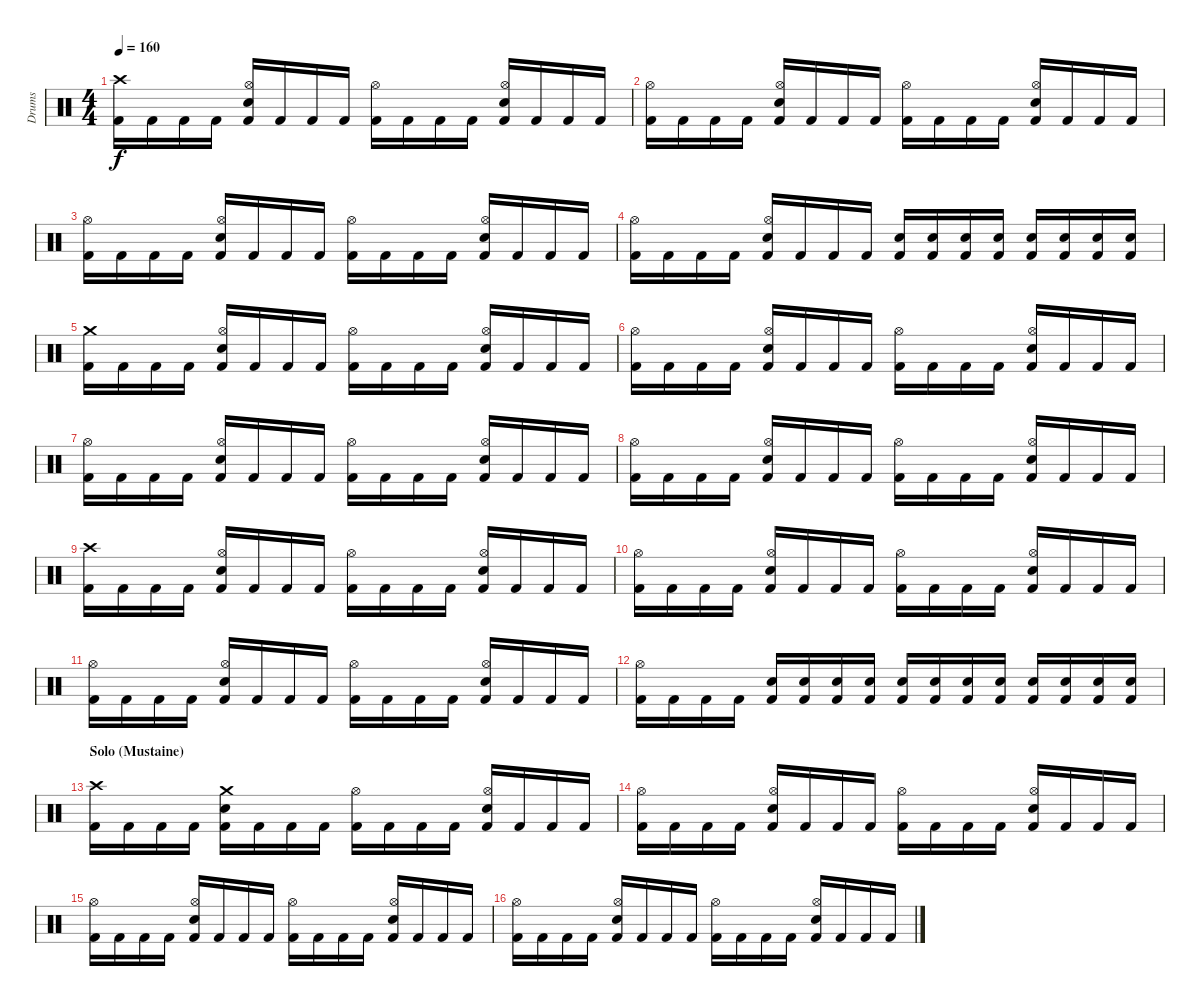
\track ("Drums" "Drums") {instrument percussion}
\staff {score}
\articulation defaults
\ts (4 4)
\tempo 160
\clef neutral
\ks c
("Crash high (hit)" "Kick (hit) 2").16{dy f} "Kick (hit) 2".16 "Kick (hit) 2".16 "Kick (hit) 2".16 ("Hi-Hat (open)" "Snare (hit) 2" "Kick (hit) 2").16 "Kick (hit) 2".16 "Kick (hit) 2".16 "Kick (hit) 2".16 ("Hi-Hat (open)" "Kick (hit) 2").16 "Kick (hit) 2".16 "Kick (hit) 2".16 "Kick (hit) 2".16 ("Hi-Hat (open)" "Snare (hit) 2" "Kick (hit) 2").16 "Kick (hit) 2".16 "Kick (hit) 2".16 "Kick (hit) 2".16 |
("Hi-Hat (open)" "Kick (hit) 2").16 "Kick (hit) 2".16 "Kick (hit) 2".16 "Kick (hit) 2".16 ("Hi-Hat (open)" "Snare (hit) 2" "Kick (hit) 2").16 "Kick (hit) 2".16 "Kick (hit) 2".16 "Kick (hit) 2".16 ("Hi-Hat (open)" "Kick (hit) 2").16 "Kick (hit) 2".16 "Kick (hit) 2".16 "Kick (hit) 2".16 ("Hi-Hat (open)" "Snare (hit) 2" "Kick (hit) 2").16 "Kick (hit) 2".16 "Kick (hit) 2".16 "Kick (hit) 2".16 |
("Hi-Hat (open)" "Kick (hit) 2").16 "Kick (hit) 2".16 "Kick (hit) 2".16 "Kick (hit) 2".16 ("Hi-Hat (open)" "Snare (hit) 2" "Kick (hit) 2").16 "Kick (hit) 2".16 "Kick (hit) 2".16 "Kick (hit) 2".16 ("Hi-Hat (open)" "Kick (hit) 2").16 "Kick (hit) 2".16 "Kick (hit) 2".16 "Kick (hit) 2".16 ("Hi-Hat (open)" "Snare (hit) 2" "Kick (hit) 2").16 "Kick (hit) 2".16 "Kick (hit) 2".16 "Kick (hit) 2".16 |
("Hi-Hat (open)" "Kick (hit) 2").16 "Kick (hit) 2".16 "Kick (hit) 2".16 "Kick (hit) 2".16 ("Hi-Hat (open)" "Snare (hit) 2" "Kick (hit) 2").16 "Kick (hit) 2".16 "Kick (hit) 2".16 "Kick (hit) 2".16 ("Snare (hit) 2" "Kick (hit) 2").16 ("Snare (hit) 2" "Kick (hit) 2").16 ("Snare (hit) 2" "Kick (hit) 2").16 ("Snare (hit) 2" "Kick (hit) 2").16 ("Snare (hit) 2" "Kick (hit) 2").16 ("Snare (hit) 2" "Kick (hit) 2").16 ("Snare (hit) 2" "Kick (hit) 2").16 ("Snare (hit) 2" "Kick (hit) 2").16 |
("Crash medium (hit)" "Kick (hit) 2").16 "Kick (hit) 2".16 "Kick (hit) 2".16 "Kick (hit) 2".16 ("Hi-Hat (open)" "Snare (hit) 2" "Kick (hit) 2").16 "Kick (hit) 2".16 "Kick (hit) 2".16 "Kick (hit) 2".16 ("Hi-Hat (open)" "Kick (hit) 2").16 "Kick (hit) 2".16 "Kick (hit) 2".16 "Kick (hit) 2".16 ("Hi-Hat (open)" "Snare (hit) 2" "Kick (hit) 2").16 "Kick (hit) 2".16 "Kick (hit) 2".16 "Kick (hit) 2".16 |
("Hi-Hat (open)" "Kick (hit) 2").16 "Kick (hit) 2".16 "Kick (hit) 2".16 "Kick (hit) 2".16 ("Hi-Hat (open)" "Snare (hit) 2" "Kick (hit) 2").16 "Kick (hit) 2".16 "Kick (hit) 2".16 "Kick (hit) 2".16 ("Hi-Hat (open)" "Kick (hit) 2").16 "Kick (hit) 2".16 "Kick (hit) 2".16 "Kick (hit) 2".16 ("Hi-Hat (open)" "Snare (hit) 2" "Kick (hit) 2").16 "Kick (hit) 2".16 "Kick (hit) 2".16 "Kick (hit) 2".16 |
("Hi-Hat (open)" "Kick (hit) 2").16 "Kick (hit) 2".16 "Kick (hit) 2".16 "Kick (hit) 2".16 ("Hi-Hat (open)" "Snare (hit) 2" "Kick (hit) 2").16 "Kick (hit) 2".16 "Kick (hit) 2".16 "Kick (hit) 2".16 ("Hi-Hat (open)" "Kick (hit) 2").16 "Kick (hit) 2".16 "Kick (hit) 2".16 "Kick (hit) 2".16 ("Hi-Hat (open)" "Snare (hit) 2" "Kick (hit) 2").16 "Kick (hit) 2".16 "Kick (hit) 2".16 "Kick (hit) 2".16 |
("Hi-Hat (open)" "Kick (hit) 2").16 "Kick (hit) 2".16 "Kick (hit) 2".16 "Kick (hit) 2".16 ("Hi-Hat (open)" "Snare (hit) 2" "Kick (hit) 2").16 "Kick (hit) 2".16 "Kick (hit) 2".16 "Kick (hit) 2".16 ("Hi-Hat (open)" "Kick (hit) 2").16 "Kick (hit) 2".16 "Kick (hit) 2".16 "Kick (hit) 2".16 ("Hi-Hat (open)" "Snare (hit) 2" "Kick (hit) 2").16 "Kick (hit) 2".16 "Kick (hit) 2".16 "Kick (hit) 2".16 |
("Crash high (hit)" "Kick (hit) 2").16 "Kick (hit) 2".16 "Kick (hit) 2".16 "Kick (hit) 2".16 ("Hi-Hat (open)" "Snare (hit) 2" "Kick (hit) 2").16 "Kick (hit) 2".16 "Kick (hit) 2".16 "Kick (hit) 2".16 ("Hi-Hat (open)" "Kick (hit) 2").16 "Kick (hit) 2".16 "Kick (hit) 2".16 "Kick (hit) 2".16 ("Hi-Hat (open)" "Snare (hit) 2" "Kick (hit) 2").16 "Kick (hit) 2".16 "Kick (hit) 2".16 "Kick (hit) 2".16 |
("Hi-Hat (open)" "Kick (hit) 2").16 "Kick (hit) 2".16 "Kick (hit) 2".16 "Kick (hit) 2".16 ("Hi-Hat (open)" "Snare (hit) 2" "Kick (hit) 2").16 "Kick (hit) 2".16 "Kick (hit) 2".16 "Kick (hit) 2".16 ("Hi-Hat (open)" "Kick (hit) 2").16 "Kick (hit) 2".16 "Kick (hit) 2".16 "Kick (hit) 2".16 ("Hi-Hat (open)" "Snare (hit) 2" "Kick (hit) 2").16 "Kick (hit) 2".16 "Kick (hit) 2".16 "Kick (hit) 2".16 |
("Hi-Hat (open)" "Kick (hit) 2").16 "Kick (hit) 2".16 "Kick (hit) 2".16 "Kick (hit) 2".16 ("Hi-Hat (open)" "Snare (hit) 2" "Kick (hit) 2").16 "Kick (hit) 2".16 "Kick (hit) 2".16 "Kick (hit) 2".16 ("Hi-Hat (open)" "Kick (hit) 2").16 "Kick (hit) 2".16 "Kick (hit) 2".16 "Kick (hit) 2".16 ("Hi-Hat (open)" "Snare (hit) 2" "Kick (hit) 2").16 "Kick (hit) 2".16 "Kick (hit) 2".16 "Kick (hit) 2".16 |
("Hi-Hat (open)" "Kick (hit) 2").16 "Kick (hit) 2".16 "Kick (hit) 2".16 "Kick (hit) 2".16 ("Snare (hit) 2" "Kick (hit) 2").16 ("Snare (hit) 2" "Kick (hit) 2").16 ("Snare (hit) 2" "Kick (hit) 2").16 ("Snare (hit) 2" "Kick (hit) 2").16 ("Snare (hit) 2" "Kick (hit) 2").16 ("Snare (hit) 2" "Kick (hit) 2").16 ("Snare (hit) 2" "Kick (hit) 2").16 ("Snare (hit) 2" "Kick (hit) 2").16 ("Snare (hit) 2" "Kick (hit) 2").16 ("Snare (hit) 2" "Kick (hit) 2").16 ("Snare (hit) 2" "Kick (hit) 2").16 ("Snare (hit) 2" "Kick (hit) 2").16 |
\section ("" "Solo (Mustaine)")
("Crash high (hit)" "Kick (hit) 2").16 "Kick (hit) 2".16 "Kick (hit) 2".16 "Kick (hit) 2".16 ("Crash medium (hit)" "Snare (hit) 2" "Kick (hit) 2").16 "Kick (hit) 2".16 "Kick (hit) 2".16 "Kick (hit) 2".16 ("Hi-Hat (open)" "Kick (hit) 2").16 "Kick (hit) 2".16 "Kick (hit) 2".16 "Kick (hit) 2".16 ("Hi-Hat (open)" "Snare (hit) 2" "Kick (hit) 2").16 "Kick (hit) 2".16 "Kick (hit) 2".16 "Kick (hit) 2".16 |
("Hi-Hat (open)" "Kick (hit) 2").16 "Kick (hit) 2".16 "Kick (hit) 2".16 "Kick (hit) 2".16 ("Hi-Hat (open)" "Snare (hit) 2" "Kick (hit) 2").16 "Kick (hit) 2".16 "Kick (hit) 2".16 "Kick (hit) 2".16 ("Hi-Hat (open)" "Kick (hit) 2").16 "Kick (hit) 2".16 "Kick (hit) 2".16 "Kick (hit) 2".16 ("Hi-Hat (open)" "Snare (hit) 2" "Kick (hit) 2").16 "Kick (hit) 2".16 "Kick (hit) 2".16 "Kick (hit) 2".16 |
("Hi-Hat (open)" "Kick (hit) 2").16 "Kick (hit) 2".16 "Kick (hit) 2".16 "Kick (hit) 2".16 ("Hi-Hat (open)" "Snare (hit) 2" "Kick (hit) 2").16 "Kick (hit) 2".16 "Kick (hit) 2".16 "Kick (hit) 2".16 ("Hi-Hat (open)" "Kick (hit) 2").16 "Kick (hit) 2".16 "Kick (hit) 2".16 "Kick (hit) 2".16 ("Hi-Hat (open)" "Snare (hit) 2" "Kick (hit) 2").16 "Kick (hit) 2".16 "Kick (hit) 2".16 "Kick (hit) 2".16 |
("Hi-Hat (open)" "Kick (hit) 2").16 "Kick (hit) 2".16 "Kick (hit) 2".16 "Kick (hit) 2".16 ("Hi-Hat (open)" "Snare (hit) 2" "Kick (hit) 2").16 "Kick (hit) 2".16 "Kick (hit) 2".16 "Kick (hit) 2".16 ("Hi-Hat (open)" "Kick (hit) 2").16 "Kick (hit) 2".16 "Kick (hit) 2".16 "Kick (hit) 2".16 ("Hi-Hat (open)" "Snare (hit) 2" "Kick (hit) 2").16 "Kick (hit) 2".16 "Kick (hit) 2".16 "Kick (hit) 2".16
